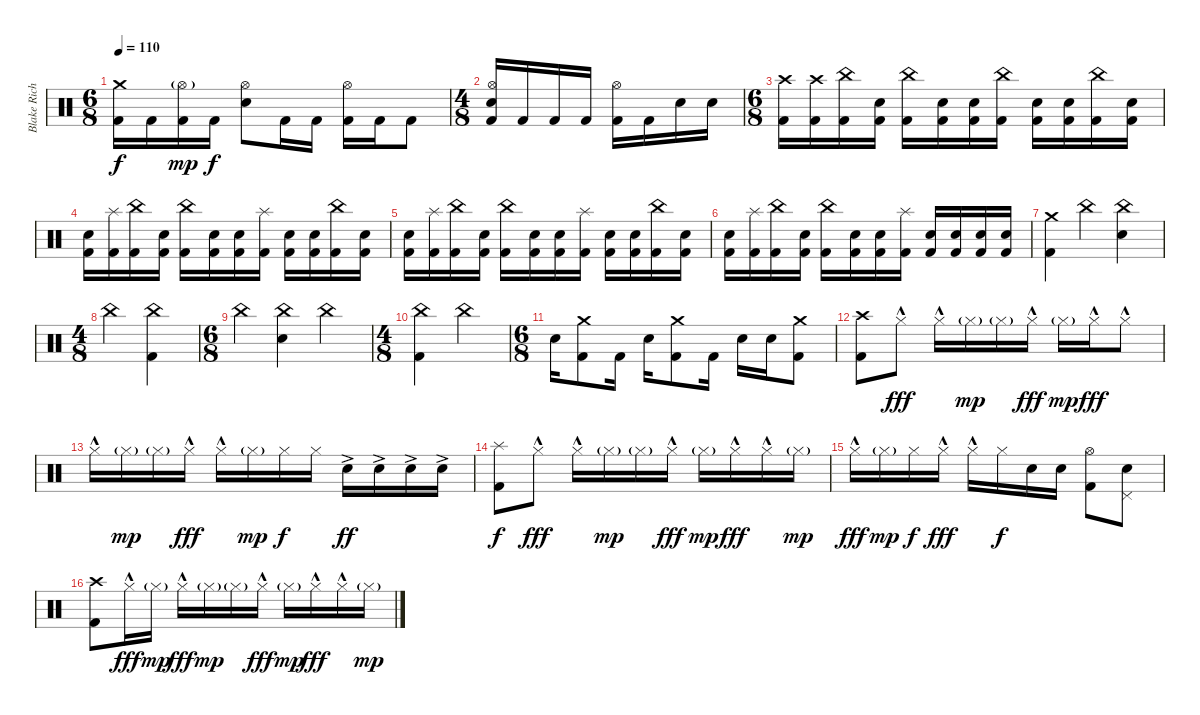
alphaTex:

\track ("Blake Richardson" "Blake Rich") {instrument percussion}
\staff {score}
\articulation defaults
\ts (6 8)
\tempo 110
\clef neutral
\ks c
("Crash medium (hit)" "Kick (hit) 2").16{dy f} "Kick (hit) 2".16 ("Hi-Hat (open)"{g} "Kick (hit) 2").16{dy mp} "Kick (hit) 2".16{dy f beam split} ("Hi-Hat (open)" "Electric Snare (hit)").8{beam merge} "Kick (hit) 2".16 "Kick (hit) 2".16{beam split} ("Hi-Hat (open)" "Kick (hit) 2").16 "Kick (hit) 2".16 "Kick (hit) 2".8 |
\ts (4 8)
("Hi-Hat (open)" "Electric Snare (hit)" "Kick (hit) 2").16 "Kick (hit) 2".16{beam merge} "Kick (hit) 2".16 "Kick (hit) 2".16 ("Hi-Hat (open)" "Kick (hit) 2").16 "Kick (hit) 2".16{beam merge} "Electric Snare (hit)".16 "Electric Snare (hit)".16 |
\ts (6 8)
("Crash high (hit)" "Kick (hit) 2").16 ("Crash high (hit)" "Kick (hit) 2").16 ("China (hit)" "Kick (hit) 2").16 ("Electric Snare (hit)" "Kick (hit) 2").16{beam split} ("China (hit)" "Kick (hit) 2").16 ("Electric Snare (hit)" "Kick (hit) 2").16{beam merge} ("Electric Snare (hit)" "Kick (hit) 2").16 ("China (hit)" "Kick (hit) 2").16{beam split} ("Electric Snare (hit)" "Kick (hit) 2").16 ("Electric Snare (hit)" "Kick (hit) 2").16 ("China (hit)" "Kick (hit) 2").16 ("Electric Snare (hit)" "Kick (hit) 2").16 |
("Electric Snare (hit)" "Kick (hit) 2").16 ("Splash (hit)" "Kick (hit) 2").16 ("China (hit)" "Kick (hit) 2").16 ("Electric Snare (hit)" "Kick (hit) 2").16{beam split} ("China (hit)" "Kick (hit) 2").16 ("Electric Snare (hit)" "Kick (hit) 2").16{beam merge} ("Electric Snare (hit)" "Kick (hit) 2").16 ("Splash (hit)" "Kick (hit) 2").16{beam split} ("Electric Snare (hit)" "Kick (hit) 2").16 ("Electric Snare (hit)" "Kick (hit) 2").16 ("China (hit)" "Kick (hit) 2").16 ("Electric Snare (hit)" "Kick (hit) 2").16 |
("Electric Snare (hit)" "Kick (hit) 2").16 ("Splash (hit)" "Kick (hit) 2").16 ("China (hit)" "Kick (hit) 2").16 ("Electric Snare (hit)" "Kick (hit) 2").16{beam split} ("China (hit)" "Kick (hit) 2").16 ("Electric Snare (hit)" "Kick (hit) 2").16{beam merge} ("Electric Snare (hit)" "Kick (hit) 2").16 ("Splash (hit)" "Kick (hit) 2").16{beam split} ("Electric Snare (hit)" "Kick (hit) 2").16 ("Electric Snare (hit)" "Kick (hit) 2").16 ("China (hit)" "Kick (hit) 2").16 ("Electric Snare (hit)" "Kick (hit) 2").16 |
("Electric Snare (hit)" "Kick (hit) 2").16 ("Splash (hit)" "Kick (hit) 2").16 ("China (hit)" "Kick (hit) 2").16 ("Electric Snare (hit)" "Kick (hit) 2").16{beam split} ("China (hit)" "Kick (hit) 2").16 ("Electric Snare (hit)" "Kick (hit) 2").16{beam merge} ("Electric Snare (hit)" "Kick (hit) 2").16 ("Splash (hit)" "Kick (hit) 2").16{beam split} ("Electric Snare (hit)" "Kick (hit) 2").16 ("Electric Snare (hit)" "Kick (hit) 2").16 ("Electric Snare (hit)" "Kick (hit) 2").16 ("Electric Snare (hit)" "Kick (hit) 2").16 |
("Crash medium (hit)" "Kick (hit) 2").4 "China (hit)".4 ("China (hit)" "Electric Snare (hit)").4 |
\ts (4 8)
"China (hit)".4 ("China (hit)" "Kick (hit) 2").4 |
\ts (6 8)
"China (hit)".4 ("China (hit)" "Electric Snare (hit)").4 "China (hit)".4 |
\ts (4 8)
("China (hit)" "Kick (hit) 2").4 "China (hit)".4 |
\ts (6 8)
"Electric Snare (hit)".16 ("Crash medium (hit)" "Kick (hit) 2").8 "Kick (hit) 2".16{beam split} "Electric Snare (hit)".16 ("Crash medium (hit)" "Kick (hit) 2").8{beam merge} "Kick (hit) 2".16{beam split} "Electric Snare (hit)".16 "Electric Snare (hit)".16 ("Crash medium (hit)" "Kick (hit) 2").8 |
("Crash high (hit)" "Kick (hit) 2").8 "Hi-Hat (closed)"{hac}.8{dy fff beam split} "Hi-Hat (closed)"{hac}.16 "Hi-Hat (closed)"{g}.16{dy mp beam merge} "Hi-Hat (closed)"{g}.16 "Hi-Hat (closed)"{hac}.16{dy fff beam split} "Hi-Hat (closed)"{g}.16{dy mp} "Hi-Hat (closed)"{hac}.16{dy fff} "Hi-Hat (closed)"{hac}.8 |
"Hi-Hat (closed)"{hac}.16 "Hi-Hat (closed)"{g}.16{dy mp} "Hi-Hat (closed)"{g}.16 "Hi-Hat (closed)"{hac}.16{dy fff beam split} "Hi-Hat (closed)"{hac}.16 "Hi-Hat (closed)"{g}.16{dy mp beam merge} "Hi-Hat (closed)".16{dy f} "Hi-Hat (closed)".16{beam split} "Electric Snare (hit)"{ac}.16{dy ff} "Electric Snare (hit)"{ac}.16 "Electric Snare (hit)"{ac}.16 "Electric Snare (hit)"{ac}.16 |
("Splash (hit)" "Kick (hit) 2").8{dy f} "Hi-Hat (closed)"{hac}.8{dy fff beam split} "Hi-Hat (closed)"{hac}.16 "Hi-Hat (closed)"{g}.16{dy mp beam merge} "Hi-Hat (closed)"{g}.16 "Hi-Hat (closed)"{hac}.16{dy fff beam split} "Hi-Hat (closed)"{g}.16{dy mp} "Hi-Hat (closed)"{hac}.16{dy fff} "Hi-Hat (closed)"{hac}.16 "Hi-Hat (closed)"{g}.16{dy mp} |
"Hi-Hat (closed)"{hac}.16{dy fff} "Hi-Hat (closed)"{g}.16{dy mp} "Hi-Hat (closed)".16{dy f} "Hi-Hat (closed)"{hac}.16{dy fff beam split} "Hi-Hat (closed)"{hac}.16 "Hi-Hat (closed)".16{dy f beam merge} "Electric Snare (hit)".16 "Electric Snare (hit)".16{beam split} ("Hi-Hat (open)" "Kick (hit) 2").8 ("Electric Snare (hit)" "Pedal Hi-Hat (hit)").8 |
("Crash high (hit)" "Kick (hit) 2").8 "Hi-Hat (closed)"{hac}.16{dy fff} "Hi-Hat (closed)"{g}.16{dy mp beam split} "Hi-Hat (closed)"{hac}.16{dy fff} "Hi-Hat (closed)"{g}.16{dy mp beam merge} "Hi-Hat (closed)"{g}.16 "Hi-Hat (closed)"{hac}.16{dy fff beam split} "Hi-Hat (closed)"{g}.16{dy mp} "Hi-Hat (closed)"{hac}.16{dy fff} "Hi-Hat (closed)"{hac}.16 "Hi-Hat (closed)"{g}.16{dy mp}
